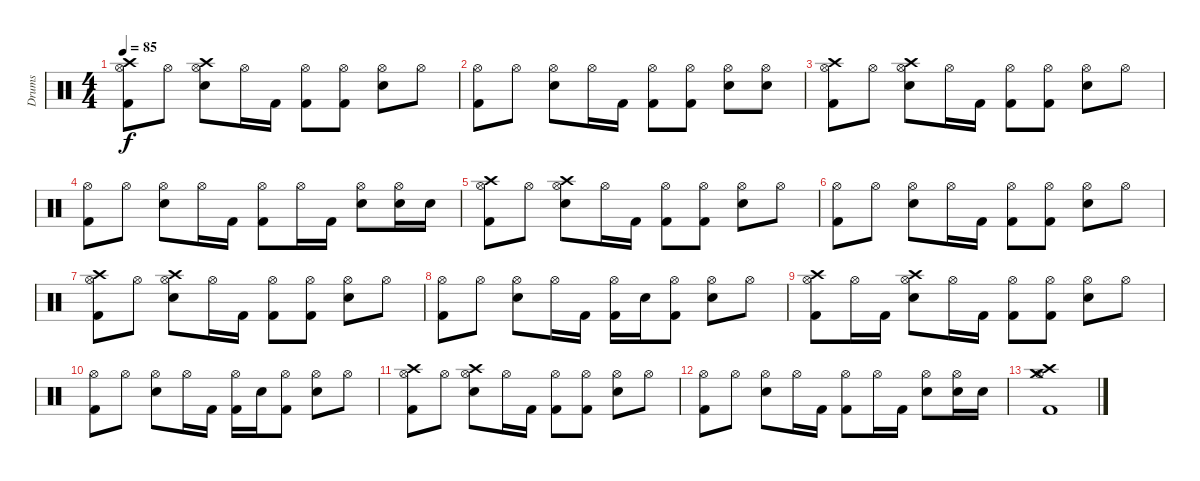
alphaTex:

\track ("Drums" "Drums") {instrument percussion}
\staff {score}
\articulation defaults
\ts (4 4)
\tempo 85
\clef neutral
\ks c
("Hi-Hat (open)" "Crash high (hit)" "Kick (hit) 2").8{dy f} "Hi-Hat (open)".8 ("Hi-Hat (open)" "Crash high (hit)" "Snare (hit) 2").8 "Hi-Hat (open)".16 "Kick (hit) 2".16 ("Hi-Hat (open)" "Kick (hit) 2").8 ("Hi-Hat (open)" "Kick (hit) 2").8 ("Hi-Hat (open)" "Snare (hit) 2").8 "Hi-Hat (open)".8 |
("Hi-Hat (open)" "Kick (hit) 2").8 "Hi-Hat (open)".8 ("Hi-Hat (open)" "Snare (hit) 2").8 "Hi-Hat (open)".16 "Kick (hit) 2".16 ("Hi-Hat (open)" "Kick (hit) 2").8 ("Hi-Hat (open)" "Kick (hit) 2").8 ("Hi-Hat (open)" "Snare (hit) 2").8 ("Hi-Hat (open)" "Snare (hit) 2").8 |
("Hi-Hat (open)" "Crash high (hit)" "Kick (hit) 2").8 "Hi-Hat (open)".8 ("Hi-Hat (open)" "Crash high (hit)" "Snare (hit) 2").8 "Hi-Hat (open)".16 "Kick (hit) 2".16 ("Hi-Hat (open)" "Kick (hit) 2").8 ("Hi-Hat (open)" "Kick (hit) 2").8 ("Hi-Hat (open)" "Snare (hit) 2").8 "Hi-Hat (open)".8 |
("Hi-Hat (open)" "Kick (hit) 2").8 "Hi-Hat (open)".8 ("Hi-Hat (open)" "Snare (hit) 2").8 "Hi-Hat (open)".16 "Kick (hit) 2".16 ("Hi-Hat (open)" "Kick (hit) 2").8 "Hi-Hat (open)".16 "Kick (hit) 2".16 ("Hi-Hat (open)" "Snare (hit) 2").8 ("Hi-Hat (open)" "Snare (hit) 2").16 "Snare (hit) 2".16 |
("Hi-Hat (open)" "Crash high (hit)" "Kick (hit) 2").8 "Hi-Hat (open)".8 ("Hi-Hat (open)" "Crash high (hit)" "Snare (hit) 2").8 "Hi-Hat (open)".16 "Kick (hit) 2".16 ("Hi-Hat (open)" "Kick (hit) 2").8 ("Hi-Hat (open)" "Kick (hit) 2").8 ("Hi-Hat (open)" "Snare (hit) 2").8 "Hi-Hat (open)".8 |
("Hi-Hat (open)" "Kick (hit) 2").8 "Hi-Hat (open)".8 ("Hi-Hat (open)" "Snare (hit) 2").8 "Hi-Hat (open)".16 "Kick (hit) 2".16 ("Hi-Hat (open)" "Kick (hit) 2").8 ("Hi-Hat (open)" "Kick (hit) 2").8 ("Hi-Hat (open)" "Snare (hit) 2").8 "Hi-Hat (open)".8 |
("Hi-Hat (open)" "Crash high (hit)" "Kick (hit) 2").8 "Hi-Hat (open)".8 ("Hi-Hat (open)" "Crash high (hit)" "Snare (hit) 2").8 "Hi-Hat (open)".16 "Kick (hit) 2".16 ("Hi-Hat (open)" "Kick (hit) 2").8 ("Hi-Hat (open)" "Kick (hit) 2").8 ("Hi-Hat (open)" "Snare (hit) 2").8 "Hi-Hat (open)".8 |
("Hi-Hat (open)" "Kick (hit) 2").8 "Hi-Hat (open)".8 ("Hi-Hat (open)" "Snare (hit) 2").8 "Hi-Hat (open)".16 "Kick (hit) 2".16 ("Hi-Hat (open)" "Kick (hit) 2").16 "Snare (hit) 2".16 ("Hi-Hat (open)" "Kick (hit) 2").8 ("Hi-Hat (open)" "Snare (hit) 2").8 "Hi-Hat (open)".8 |
("Hi-Hat (open)" "Crash high (hit)" "Kick (hit) 2").8 "Hi-Hat (open)".16 "Kick (hit) 2".16 ("Hi-Hat (open)" "Crash high (hit)" "Snare (hit) 2").8 "Hi-Hat (open)".16 "Kick (hit) 2".16 ("Hi-Hat (open)" "Kick (hit) 2").8 ("Hi-Hat (open)" "Kick (hit) 2").8 ("Hi-Hat (open)" "Snare (hit) 2").8 "Hi-Hat (open)".8 |
("Hi-Hat (open)" "Kick (hit) 2").8 "Hi-Hat (open)".8 ("Hi-Hat (open)" "Snare (hit) 2").8 "Hi-Hat (open)".16 "Kick (hit) 2".16 ("Hi-Hat (open)" "Kick (hit) 2").16 "Snare (hit) 2".16 ("Hi-Hat (open)" "Kick (hit) 2").8 ("Hi-Hat (open)" "Snare (hit) 2").8 "Hi-Hat (open)".8 |
("Hi-Hat (open)" "Crash high (hit)" "Kick (hit) 2").8 "Hi-Hat (open)".8 ("Hi-Hat (open)" "Crash high (hit)" "Snare (hit) 2").8 "Hi-Hat (open)".16 "Kick (hit) 2".16 ("Hi-Hat (open)" "Kick (hit) 2").8 ("Hi-Hat (open)" "Kick (hit) 2").8 ("Hi-Hat (open)" "Snare (hit) 2").8 "Hi-Hat (open)".8 |
("Hi-Hat (open)" "Kick (hit) 2").8 "Hi-Hat (open)".8 ("Hi-Hat (open)" "Snare (hit) 2").8 "Hi-Hat (open)".16 "Kick (hit) 2".16 ("Hi-Hat (open)" "Kick (hit) 2").8 "Hi-Hat (open)".16 "Kick (hit) 2".16 ("Hi-Hat (open)" "Snare (hit) 2").8 ("Hi-Hat (open)" "Snare (hit) 2").16 "Snare (hit) 2".16 |
("Crash high (hit)" "Crash medium (hit)" "Hi-Hat (open)" "Kick (hit) 2").1
